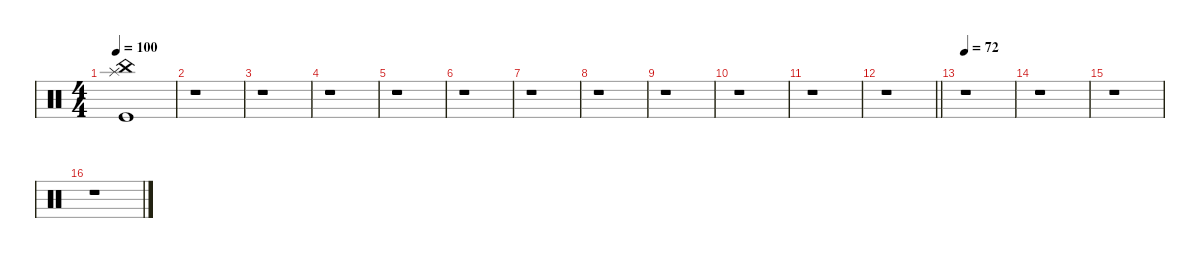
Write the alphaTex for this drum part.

\defaultSystemsLayout 4
\hideDynamics
\bracketExtendMode nobrackets
\singleTrackTrackNamePolicy hidden
\multiTrackTrackNamePolicy hidden
\firstSystemTrackNameMode fullname
\firstSystemTrackNameOrientation horizontal
\otherSystemsTrackNameOrientation horizontal
\track ("Drums" "drm.") {instrument percussion}
\staff {score}
\articulation defaults
\ts (4 4)
\tempo 100
\clef neutral
\ks c
("Splash (hit)" "China (hit)" "Kick (hit)").1{dy f beam Down} |
r.1{beam Down} |
r.1{beam Down} |
r.1{beam Down} |
r.1{beam Down} |
r.1{beam Down} |
r.1{beam Down} |
r.1{beam Down} |
r.1{beam Down} |
r.1{beam Down} |
r.1{beam Down} |
\barLineRight lightlight
r.1{beam Down} |
\tempo 72
r.1{beam Down} |
r.1{beam Down} |
r.1{beam Down} |
r.1{beam Down}
